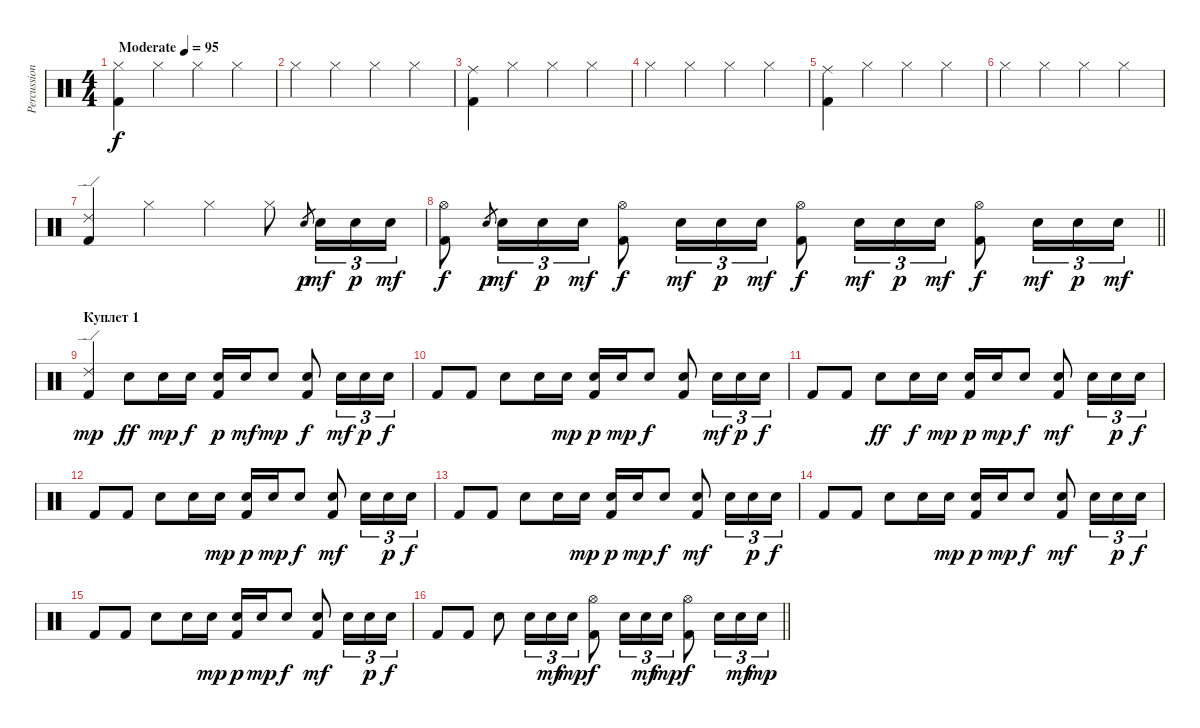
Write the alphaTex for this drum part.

\track ("Percussion" "Percussion") {instrument percussion}
\staff {score}
\articulation defaults
\ts (4 4)
\tempo (95 "Moderate")
\clef neutral
\ks c
("Hi-Hat (closed)" "Kick (hit) 2").4{dy f} "Hi-Hat (closed)".4 "Hi-Hat (closed)".4 "Hi-Hat (closed)".4 |
"Hi-Hat (closed)".4 "Hi-Hat (closed)".4 "Hi-Hat (closed)".4 "Hi-Hat (closed)".4 |
("Ride (middle)" "Kick (hit) 2").4 "Hi-Hat (closed)".4 "Hi-Hat (closed)".4 "Hi-Hat (closed)".4 |
"Hi-Hat (closed)".4 "Hi-Hat (closed)".4 "Hi-Hat (closed)".4 "Hi-Hat (closed)".4 |
("Ride (middle)" "Kick (hit) 2").4 "Hi-Hat (closed)".4 "Hi-Hat (closed)".4 "Hi-Hat (closed)".4 |
"Hi-Hat (closed)".4 "Hi-Hat (closed)".4 "Hi-Hat (closed)".4 "Hi-Hat (closed)".4 |
("Ride (edge) 2" "Kick (hit) 2").4 "Hi-Hat (closed)".4 "Hi-Hat (closed)".4 "Hi-Hat (closed)".8 "Electric Snare (hit)".8{gr dy p} "Electric Snare (hit)".16{tu (3 2) dy mf} "Electric Snare (hit)".16{tu (3 2) dy p} "Electric Snare (hit)".16{tu (3 2) dy mf} |
\barLineRight lightlight
("Hi-Hat (open)" "Kick (hit) 2").8{dy f} "Electric Snare (hit)".8{gr dy p} "Electric Snare (hit)".16{tu (3 2) dy mf} "Electric Snare (hit)".16{tu (3 2) dy p} "Electric Snare (hit)".16{tu (3 2) dy mf} ("Hi-Hat (open)" "Kick (hit) 2").8{dy f} "Electric Snare (hit)".16{tu (3 2) dy mf} "Electric Snare (hit)".16{tu (3 2) dy p} "Electric Snare (hit)".16{tu (3 2) dy mf} ("Hi-Hat (open)" "Kick (hit) 2").8{dy f} "Electric Snare (hit)".16{tu (3 2) dy mf} "Electric Snare (hit)".16{tu (3 2) dy p} "Electric Snare (hit)".16{tu (3 2) dy mf} ("Hi-Hat (open)" "Kick (hit) 2").8{dy f} "Electric Snare (hit)".16{tu (3 2) dy mf} "Electric Snare (hit)".16{tu (3 2) dy p} "Electric Snare (hit)".16{tu (3 2) dy mf} |
\section ("" "Куплет 1")
("Ride (edge) 2" "Kick (hit) 2").4{dy mp} "Electric Snare (hit)".8{dy ff} "Electric Snare (hit)".16{dy mp} "Electric Snare (hit)".16{dy f} ("Electric Snare (hit)" "Kick (hit) 2").16{dy p} "Electric Snare (hit)".16{dy mf} "Electric Snare (hit)".8{dy mp} ("Electric Snare (hit)" "Kick (hit) 2").8{dy f} "Electric Snare (hit)".16{tu (3 2) dy mf} "Electric Snare (hit)".16{tu (3 2) dy p} "Electric Snare (hit)".16{tu (3 2) dy f} |
"Kick (hit) 2".8 "Kick (hit) 2".8 "Electric Snare (hit)".8 "Electric Snare (hit)".16 "Electric Snare (hit)".16{dy mp} ("Electric Snare (hit)" "Kick (hit) 2").16{dy p} "Electric Snare (hit)".16{dy mp} "Electric Snare (hit)".8{dy f} ("Electric Snare (hit)" "Kick (hit) 2").8 "Electric Snare (hit)".16{tu (3 2) dy mf} "Electric Snare (hit)".16{tu (3 2) dy p} "Electric Snare (hit)".16{tu (3 2) dy f} |
"Kick (hit) 2".8 "Kick (hit) 2".8 "Electric Snare (hit)".8{dy ff} "Electric Snare (hit)".16{dy f} "Electric Snare (hit)".16{dy mp} ("Electric Snare (hit)" "Kick (hit) 2").16{dy p} "Electric Snare (hit)".16{dy mp} "Electric Snare (hit)".8{dy f} ("Electric Snare (hit)" "Kick (hit) 2").8{dy mf} "Electric Snare (hit)".16{tu (3 2)} "Electric Snare (hit)".16{tu (3 2) dy p} "Electric Snare (hit)".16{tu (3 2) dy f} |
"Kick (hit) 2".8 "Kick (hit) 2".8 "Electric Snare (hit)".8 "Electric Snare (hit)".16 "Electric Snare (hit)".16{dy mp} ("Electric Snare (hit)" "Kick (hit) 2").16{dy p} "Electric Snare (hit)".16{dy mp} "Electric Snare (hit)".8{dy f} ("Electric Snare (hit)" "Kick (hit) 2").8{dy mf} "Electric Snare (hit)".16{tu (3 2)} "Electric Snare (hit)".16{tu (3 2) dy p} "Electric Snare (hit)".16{tu (3 2) dy f} |
"Kick (hit) 2".8 "Kick (hit) 2".8 "Electric Snare (hit)".8 "Electric Snare (hit)".16 "Electric Snare (hit)".16{dy mp} ("Electric Snare (hit)" "Kick (hit) 2").16{dy p} "Electric Snare (hit)".16{dy mp} "Electric Snare (hit)".8{dy f} ("Electric Snare (hit)" "Kick (hit) 2").8{dy mf} "Electric Snare (hit)".16{tu (3 2)} "Electric Snare (hit)".16{tu (3 2) dy p} "Electric Snare (hit)".16{tu (3 2) dy f} |
"Kick (hit) 2".8 "Kick (hit) 2".8 "Electric Snare (hit)".8 "Electric Snare (hit)".16 "Electric Snare (hit)".16{dy mp} ("Electric Snare (hit)" "Kick (hit) 2").16{dy p} "Electric Snare (hit)".16{dy mp} "Electric Snare (hit)".8{dy f} ("Electric Snare (hit)" "Kick (hit) 2").8{dy mf} "Electric Snare (hit)".16{tu (3 2)} "Electric Snare (hit)".16{tu (3 2) dy p} "Electric Snare (hit)".16{tu (3 2) dy f} |
"Kick (hit) 2".8 "Kick (hit) 2".8 "Electric Snare (hit)".8 "Electric Snare (hit)".16 "Electric Snare (hit)".16{dy mp} ("Electric Snare (hit)" "Kick (hit) 2").16{dy p} "Electric Snare (hit)".16{dy mp} "Electric Snare (hit)".8{dy f} ("Electric Snare (hit)" "Kick (hit) 2").8{dy mf} "Electric Snare (hit)".16{tu (3 2)} "Electric Snare (hit)".16{tu (3 2) dy p} "Electric Snare (hit)".16{tu (3 2) dy f} |
\barLineRight lightlight "Kick (hit) 2".8 "Kick (hit) 2".8 "Electric Snare (hit)".8 "Electric Snare (hit)".16{tu (3 2)} "Electric Snare (hit)".16{tu (3 2) dy mf} "Electric Snare (hit)".16{tu (3 2) dy mp}
("Hi-Hat (open)" "Kick (hit) 2").8{dy f} "Electric Snare (hit)".16{tu (3 2)} "Electric Snare (hit)".16{tu (3 2) dy mf} "Electric Snare (hit)".16{tu (3 2) dy mp} ("Hi-Hat (open)" "Kick (hit) 2").8{dy f} "Electric Snare (hit)".16{tu (3 2)} "Electric Snare (hit)".16{tu (3 2) dy mf} "Electric Snare (hit)".16{tu (3 2) dy mp}
